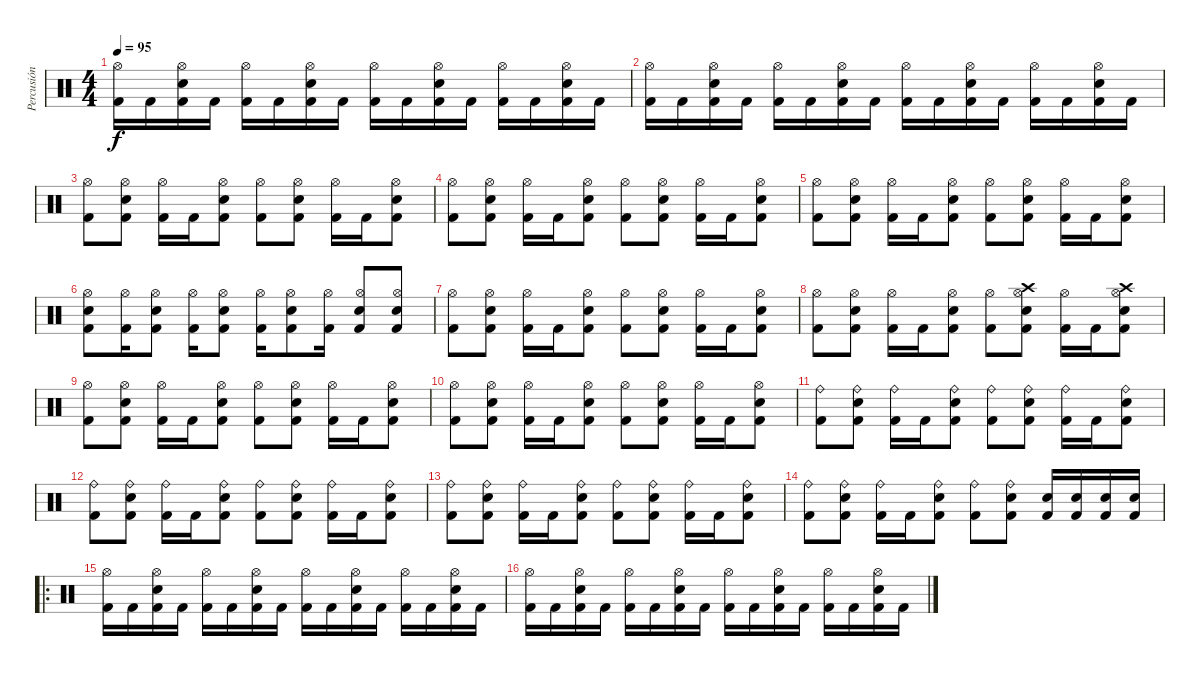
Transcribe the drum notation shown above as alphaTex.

\track ("Percusión" "Percusión") {instrument percussion}
\staff {score}
\articulation defaults
\ts (4 4)
\tempo 95
\clef neutral
\ks c
("Kick (hit) 2" "Hi-Hat (open)").16{dy f} "Kick (hit) 2".16 ("Kick (hit) 2" "Hi-Hat (open)" "Electric Snare (hit)").16 "Kick (hit) 2".16 ("Kick (hit) 2" "Hi-Hat (open)").16 "Kick (hit) 2".16 ("Kick (hit) 2" "Hi-Hat (open)" "Electric Snare (hit)").16 "Kick (hit) 2".16 ("Kick (hit) 2" "Hi-Hat (open)").16 "Kick (hit) 2".16 ("Kick (hit) 2" "Hi-Hat (open)" "Electric Snare (hit)").16 "Kick (hit) 2".16 ("Kick (hit) 2" "Hi-Hat (open)").16 "Kick (hit) 2".16 ("Kick (hit) 2" "Hi-Hat (open)" "Electric Snare (hit)").16 "Kick (hit) 2".16 |
("Kick (hit) 2" "Hi-Hat (open)").16 "Kick (hit) 2".16 ("Kick (hit) 2" "Hi-Hat (open)" "Electric Snare (hit)").16 "Kick (hit) 2".16 ("Kick (hit) 2" "Hi-Hat (open)").16 "Kick (hit) 2".16 ("Kick (hit) 2" "Hi-Hat (open)" "Electric Snare (hit)").16 "Kick (hit) 2".16 ("Kick (hit) 2" "Hi-Hat (open)").16 "Kick (hit) 2".16 ("Kick (hit) 2" "Hi-Hat (open)" "Electric Snare (hit)").16 "Kick (hit) 2".16 ("Kick (hit) 2" "Hi-Hat (open)").16 "Kick (hit) 2".16 ("Kick (hit) 2" "Hi-Hat (open)" "Electric Snare (hit)").16 "Kick (hit) 2".16 |
("Kick (hit) 2" "Hi-Hat (open)").8 ("Kick (hit) 2" "Hi-Hat (open)" "Electric Snare (hit)").8 ("Kick (hit) 2" "Hi-Hat (open)").16 "Kick (hit) 2".16 ("Kick (hit) 2" "Hi-Hat (open)" "Electric Snare (hit)").8 ("Kick (hit) 2" "Hi-Hat (open)").8 ("Kick (hit) 2" "Hi-Hat (open)" "Electric Snare (hit)").8 ("Kick (hit) 2" "Hi-Hat (open)").16 "Kick (hit) 2".16 ("Kick (hit) 2" "Hi-Hat (open)" "Electric Snare (hit)").8 |
("Kick (hit) 2" "Hi-Hat (open)").8 ("Kick (hit) 2" "Hi-Hat (open)" "Electric Snare (hit)").8 ("Kick (hit) 2" "Hi-Hat (open)").16 "Kick (hit) 2".16 ("Kick (hit) 2" "Hi-Hat (open)" "Electric Snare (hit)").8 ("Kick (hit) 2" "Hi-Hat (open)").8 ("Kick (hit) 2" "Hi-Hat (open)" "Electric Snare (hit)").8 ("Kick (hit) 2" "Hi-Hat (open)").16 "Kick (hit) 2".16 ("Kick (hit) 2" "Hi-Hat (open)" "Electric Snare (hit)").8 |
("Kick (hit) 2" "Hi-Hat (open)").8 ("Kick (hit) 2" "Hi-Hat (open)" "Electric Snare (hit)").8 ("Kick (hit) 2" "Hi-Hat (open)").16 "Kick (hit) 2".16 ("Kick (hit) 2" "Hi-Hat (open)" "Electric Snare (hit)").8 ("Kick (hit) 2" "Hi-Hat (open)").8 ("Kick (hit) 2" "Hi-Hat (open)" "Electric Snare (hit)").8 ("Kick (hit) 2" "Hi-Hat (open)").16 "Kick (hit) 2".16 ("Kick (hit) 2" "Hi-Hat (open)" "Electric Snare (hit)").8 |
("Kick (hit) 2" "Hi-Hat (open)" "Electric Snare (hit)").8 ("Kick (hit) 2" "Hi-Hat (open)").16 ("Kick (hit) 2" "Hi-Hat (open)" "Electric Snare (hit)").8 ("Kick (hit) 2" "Hi-Hat (open)").16 ("Kick (hit) 2" "Hi-Hat (open)" "Electric Snare (hit)").8 ("Kick (hit) 2" "Hi-Hat (open)").16 ("Kick (hit) 2" "Hi-Hat (open)" "Electric Snare (hit)").8 ("Kick (hit) 2" "Hi-Hat (open)").16 ("Kick (hit) 2" "Hi-Hat (open)" "Electric Snare (hit)").8 ("Kick (hit) 2" "Hi-Hat (open)" "Electric Snare (hit)").8 |
("Kick (hit) 2" "Hi-Hat (open)").8 ("Kick (hit) 2" "Hi-Hat (open)" "Electric Snare (hit)").8 ("Kick (hit) 2" "Hi-Hat (open)").16 "Kick (hit) 2".16 ("Kick (hit) 2" "Hi-Hat (open)" "Electric Snare (hit)").8 ("Kick (hit) 2" "Hi-Hat (open)").8 ("Kick (hit) 2" "Hi-Hat (open)" "Electric Snare (hit)").8 ("Kick (hit) 2" "Hi-Hat (open)").16 "Kick (hit) 2".16 ("Kick (hit) 2" "Hi-Hat (open)" "Electric Snare (hit)").8 |
("Kick (hit) 2" "Hi-Hat (open)").8 ("Kick (hit) 2" "Hi-Hat (open)" "Electric Snare (hit)").8 ("Kick (hit) 2" "Hi-Hat (open)").16 "Kick (hit) 2".16 ("Kick (hit) 2" "Hi-Hat (open)" "Electric Snare (hit)").8 ("Kick (hit) 2" "Hi-Hat (open)").8 ("Kick (hit) 2" "Hi-Hat (open)" "Electric Snare (hit)" "Crash high (hit)").8 ("Kick (hit) 2" "Hi-Hat (open)").16 "Kick (hit) 2".16 ("Kick (hit) 2" "Hi-Hat (open)" "Electric Snare (hit)" "Crash high (hit)").8 |
("Kick (hit) 2" "Hi-Hat (open)").8 ("Kick (hit) 2" "Hi-Hat (open)" "Electric Snare (hit)").8 ("Kick (hit) 2" "Hi-Hat (open)").16 "Kick (hit) 2".16 ("Kick (hit) 2" "Hi-Hat (open)" "Electric Snare (hit)").8 ("Kick (hit) 2" "Hi-Hat (open)").8 ("Kick (hit) 2" "Hi-Hat (open)" "Electric Snare (hit)").8 ("Kick (hit) 2" "Hi-Hat (open)").16 "Kick (hit) 2".16 ("Kick (hit) 2" "Hi-Hat (open)" "Electric Snare (hit)").8 |
("Kick (hit) 2" "Hi-Hat (open)").8 ("Kick (hit) 2" "Hi-Hat (open)" "Electric Snare (hit)").8 ("Kick (hit) 2" "Hi-Hat (open)").16 "Kick (hit) 2".16 ("Kick (hit) 2" "Hi-Hat (open)" "Electric Snare (hit)").8 ("Kick (hit) 2" "Hi-Hat (open)").8 ("Kick (hit) 2" "Hi-Hat (open)" "Electric Snare (hit)").8 ("Kick (hit) 2" "Hi-Hat (open)").16 "Kick (hit) 2".16 ("Kick (hit) 2" "Hi-Hat (open)" "Electric Snare (hit)").8 |
("Kick (hit) 2" "Ride (bell)").8 ("Kick (hit) 2" "Ride (bell)" "Electric Snare (hit)").8 ("Kick (hit) 2" "Ride (bell)").16 "Kick (hit) 2".16 ("Kick (hit) 2" "Ride (bell)" "Electric Snare (hit)").8 ("Kick (hit) 2" "Ride (bell)").8 ("Kick (hit) 2" "Ride (bell)" "Electric Snare (hit)").8 ("Kick (hit) 2" "Ride (bell)").16 "Kick (hit) 2".16 ("Kick (hit) 2" "Ride (bell)" "Electric Snare (hit)").8 |
("Kick (hit) 2" "Ride (bell)").8 ("Kick (hit) 2" "Ride (bell)" "Electric Snare (hit)").8 ("Kick (hit) 2" "Ride (bell)").16 "Kick (hit) 2".16 ("Kick (hit) 2" "Ride (bell)" "Electric Snare (hit)").8 ("Kick (hit) 2" "Ride (bell)").8 ("Kick (hit) 2" "Ride (bell)" "Electric Snare (hit)").8 ("Kick (hit) 2" "Ride (bell)").16 "Kick (hit) 2".16 ("Kick (hit) 2" "Ride (bell)" "Electric Snare (hit)").8 |
("Kick (hit) 2" "Ride (bell)").8 ("Kick (hit) 2" "Ride (bell)" "Electric Snare (hit)").8 ("Kick (hit) 2" "Ride (bell)").16 "Kick (hit) 2".16 ("Kick (hit) 2" "Ride (bell)" "Electric Snare (hit)").8 ("Kick (hit) 2" "Ride (bell)").8 ("Kick (hit) 2" "Ride (bell)" "Electric Snare (hit)").8 ("Kick (hit) 2" "Ride (bell)").16 "Kick (hit) 2".16 ("Kick (hit) 2" "Ride (bell)" "Electric Snare (hit)").8 |
("Kick (hit) 2" "Ride (bell)").8 ("Kick (hit) 2" "Ride (bell)" "Electric Snare (hit)").8 ("Kick (hit) 2" "Ride (bell)").16 "Kick (hit) 2".16 ("Kick (hit) 2" "Ride (bell)" "Electric Snare (hit)").8 ("Kick (hit) 2" "Ride (bell)").8 ("Kick (hit) 2" "Ride (bell)" "Electric Snare (hit)").8 ("Kick (hit) 2" "Electric Snare (hit)").16 ("Kick (hit) 2" "Electric Snare (hit)").16 ("Kick (hit) 2" "Electric Snare (hit)").16 ("Kick (hit) 2" "Electric Snare (hit)").16 |
\ro
("Kick (hit) 2" "Hi-Hat (open)").16 "Kick (hit) 2".16 ("Kick (hit) 2" "Hi-Hat (open)" "Electric Snare (hit)").16 "Kick (hit) 2".16 ("Kick (hit) 2" "Hi-Hat (open)").16 "Kick (hit) 2".16 ("Kick (hit) 2" "Hi-Hat (open)" "Electric Snare (hit)").16 "Kick (hit) 2".16 ("Kick (hit) 2" "Hi-Hat (open)").16 "Kick (hit) 2".16 ("Kick (hit) 2" "Hi-Hat (open)" "Electric Snare (hit)").16 "Kick (hit) 2".16 ("Kick (hit) 2" "Hi-Hat (open)").16 "Kick (hit) 2".16 ("Kick (hit) 2" "Hi-Hat (open)" "Electric Snare (hit)").16 "Kick (hit) 2".16 |
("Kick (hit) 2" "Hi-Hat (open)").16 "Kick (hit) 2".16 ("Kick (hit) 2" "Hi-Hat (open)" "Electric Snare (hit)").16 "Kick (hit) 2".16 ("Kick (hit) 2" "Hi-Hat (open)").16 "Kick (hit) 2".16 ("Kick (hit) 2" "Hi-Hat (open)" "Electric Snare (hit)").16 "Kick (hit) 2".16 ("Kick (hit) 2" "Hi-Hat (open)").16 "Kick (hit) 2".16 ("Kick (hit) 2" "Hi-Hat (open)" "Electric Snare (hit)").16 "Kick (hit) 2".16 ("Kick (hit) 2" "Hi-Hat (open)").16 "Kick (hit) 2".16 ("Kick (hit) 2" "Hi-Hat (open)" "Electric Snare (hit)").16 "Kick (hit) 2".16
